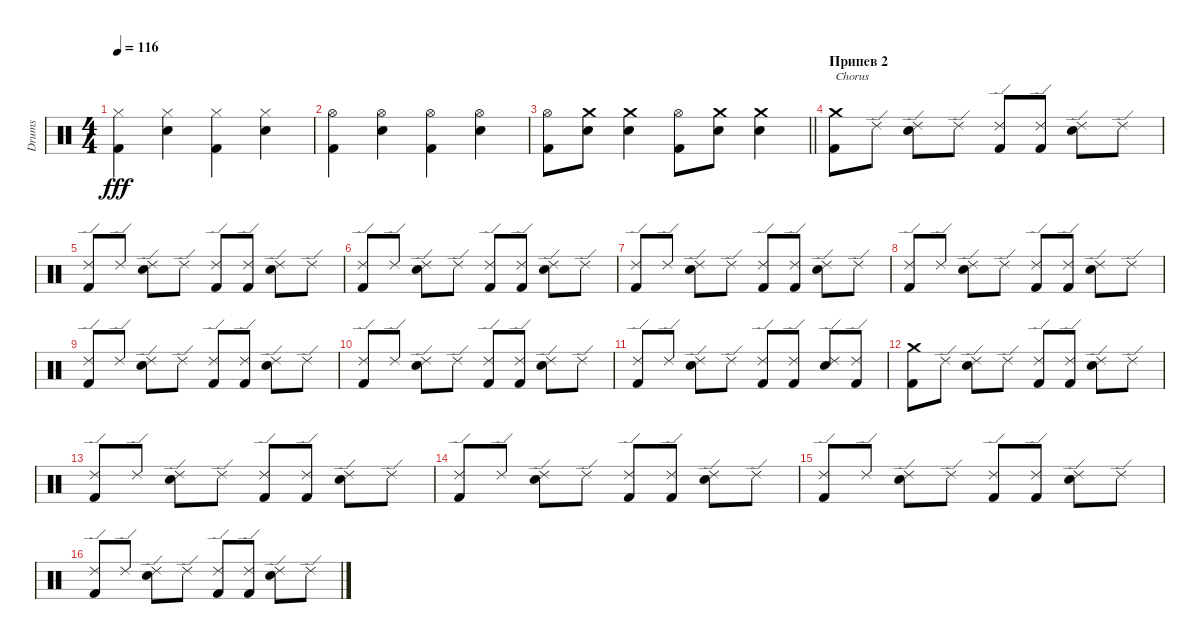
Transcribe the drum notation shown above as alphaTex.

\track ("Drums" "Drums") {instrument percussion}
\staff {score}
\articulation defaults
\ts (4 4)
\tempo 116
\clef neutral
\ks c
("Hi-Hat (closed)" "Kick (hit) 2").4{dy fff} ("Hi-Hat (closed)" "Snare (hit) 2").4 ("Hi-Hat (closed)" "Kick (hit) 2").4 ("Hi-Hat (closed)" "Snare (hit) 2").4 |
("Hi-Hat (open)" "Kick (hit) 2").4 ("Hi-Hat (open)" "Snare (hit) 2").4 ("Hi-Hat (open)" "Kick (hit) 2").4 ("Hi-Hat (open)" "Snare (hit) 2").4 |
\barLineRight lightlight
("Hi-Hat (open)" "Kick (hit) 2").8 ("Crash medium (hit)" "Snare (hit) 2").8 ("Crash medium (hit)" "Snare (hit) 2").4 ("Hi-Hat (open)" "Kick (hit) 2").8 ("Crash medium (hit)" "Snare (hit) 2").8 ("Crash medium (hit)" "Snare (hit) 2").4 |
\section ("" "Припев 2")
("Crash medium (hit)" "Kick (hit) 2").8{txt "Chorus"} "Ride (edge) 2".8 ("Ride (edge) 2" "Snare (hit) 2").8 "Ride (edge) 2".8 ("Ride (edge) 2" "Kick (hit) 2").8 ("Ride (edge) 2" "Kick (hit) 2").8 ("Ride (edge) 2" "Snare (hit) 2").8 "Ride (edge) 2".8 |
("Ride (edge) 2" "Kick (hit) 2").8 "Ride (edge) 2".8 ("Ride (edge) 2" "Snare (hit) 2").8 "Ride (edge) 2".8 ("Ride (edge) 2" "Kick (hit) 2").8 ("Ride (edge) 2" "Kick (hit) 2").8 ("Ride (edge) 2" "Snare (hit) 2").8 "Ride (edge) 2".8 |
("Ride (edge) 2" "Kick (hit) 2").8 "Ride (edge) 2".8 ("Ride (edge) 2" "Snare (hit) 2").8 "Ride (edge) 2".8 ("Ride (edge) 2" "Kick (hit) 2").8 ("Ride (edge) 2" "Kick (hit) 2").8 ("Ride (edge) 2" "Snare (hit) 2").8 "Ride (edge) 2".8 |
("Ride (edge) 2" "Kick (hit) 2").8 "Ride (edge) 2".8 ("Ride (edge) 2" "Snare (hit) 2").8 "Ride (edge) 2".8 ("Ride (edge) 2" "Kick (hit) 2").8 ("Ride (edge) 2" "Kick (hit) 2").8 ("Ride (edge) 2" "Snare (hit) 2").8 "Ride (edge) 2".8 |
("Ride (edge) 2" "Kick (hit) 2").8 "Ride (edge) 2".8 ("Ride (edge) 2" "Snare (hit) 2").8 "Ride (edge) 2".8 ("Ride (edge) 2" "Kick (hit) 2").8 ("Ride (edge) 2" "Kick (hit) 2").8 ("Ride (edge) 2" "Snare (hit) 2").8 "Ride (edge) 2".8 |
("Ride (edge) 2" "Kick (hit) 2").8 "Ride (edge) 2".8 ("Ride (edge) 2" "Snare (hit) 2").8 "Ride (edge) 2".8 ("Ride (edge) 2" "Kick (hit) 2").8 ("Ride (edge) 2" "Kick (hit) 2").8 ("Ride (edge) 2" "Snare (hit) 2").8 "Ride (edge) 2".8 |
("Ride (edge) 2" "Kick (hit) 2").8 "Ride (edge) 2".8 ("Ride (edge) 2" "Snare (hit) 2").8 "Ride (edge) 2".8 ("Ride (edge) 2" "Kick (hit) 2").8 ("Ride (edge) 2" "Kick (hit) 2").8 ("Ride (edge) 2" "Snare (hit) 2").8 "Ride (edge) 2".8 |
("Ride (edge) 2" "Kick (hit) 2").8 "Ride (edge) 2".8 ("Ride (edge) 2" "Snare (hit) 2").8 "Ride (edge) 2".8 ("Ride (edge) 2" "Kick (hit) 2").8 ("Ride (edge) 2" "Kick (hit) 2").8 ("Ride (edge) 2" "Snare (hit) 2").8 ("Ride (edge) 2" "Kick (hit) 2").8 |
("Crash medium (hit)" "Kick (hit) 2").8 "Ride (edge) 2".8 ("Ride (edge) 2" "Snare (hit) 2").8 "Ride (edge) 2".8 ("Ride (edge) 2" "Kick (hit) 2").8 ("Ride (edge) 2" "Kick (hit) 2").8 ("Ride (edge) 2" "Snare (hit) 2").8 "Ride (edge) 2".8 |
("Ride (edge) 2" "Kick (hit) 2").8 "Ride (edge) 2".8 ("Ride (edge) 2" "Snare (hit) 2").8 "Ride (edge) 2".8 ("Ride (edge) 2" "Kick (hit) 2").8 ("Ride (edge) 2" "Kick (hit) 2").8 ("Ride (edge) 2" "Snare (hit) 2").8 "Ride (edge) 2".8 |
("Ride (edge) 2" "Kick (hit) 2").8 "Ride (edge) 2".8 ("Ride (edge) 2" "Snare (hit) 2").8 "Ride (edge) 2".8 ("Ride (edge) 2" "Kick (hit) 2").8 ("Ride (edge) 2" "Kick (hit) 2").8 ("Ride (edge) 2" "Snare (hit) 2").8 "Ride (edge) 2".8 |
("Ride (edge) 2" "Kick (hit) 2").8 "Ride (edge) 2".8 ("Ride (edge) 2" "Snare (hit) 2").8 "Ride (edge) 2".8 ("Ride (edge) 2" "Kick (hit) 2").8 ("Ride (edge) 2" "Kick (hit) 2").8 ("Ride (edge) 2" "Snare (hit) 2").8 "Ride (edge) 2".8 |
("Ride (edge) 2" "Kick (hit) 2").8 "Ride (edge) 2".8 ("Ride (edge) 2" "Snare (hit) 2").8 "Ride (edge) 2".8 ("Ride (edge) 2" "Kick (hit) 2").8 ("Ride (edge) 2" "Kick (hit) 2").8 ("Ride (edge) 2" "Snare (hit) 2").8 "Ride (edge) 2".8
